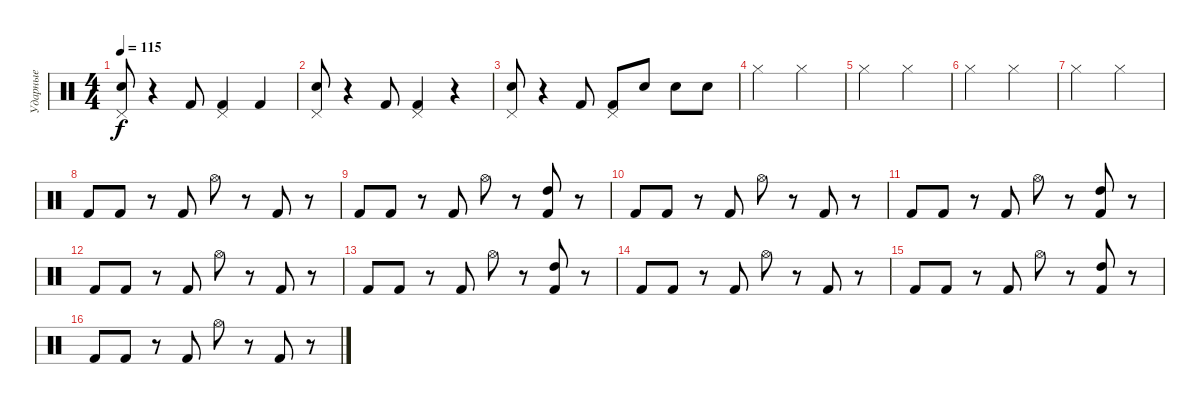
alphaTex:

\track ("Ударные" "Ударные") {instrument percussion}
\staff {score}
\articulation defaults
\ts (4 4)
\tempo 115
\clef neutral
\ks c
("Snare (hit) 2" "Pedal Hi-Hat (hit)").8{dy f} r.4 "Kick (hit) 2".8 ("Kick (hit) 2" "Pedal Hi-Hat (hit)").4 "Kick (hit) 2".4 |
("Snare (hit) 2" "Pedal Hi-Hat (hit)").8 r.4 "Kick (hit) 2".8 ("Kick (hit) 2" "Pedal Hi-Hat (hit)").4 r.4 |
("Snare (hit) 2" "Pedal Hi-Hat (hit)").8 r.4 "Kick (hit) 2".8 ("Kick (hit) 2" "Pedal Hi-Hat (hit)").8 "Snare (hit) 2".8 "Snare (hit) 2".8 "Snare (hit) 2".8 |
"Hi-Hat (closed)".2 "Hi-Hat (closed)".2 |
"Hi-Hat (closed)".2 "Hi-Hat (closed)".2 |
"Hi-Hat (closed)".2 "Hi-Hat (closed)".2 |
"Hi-Hat (closed)".2 "Hi-Hat (closed)".2 |
"Kick (hit) 2".8 "Kick (hit) 2".8 r.8 "Kick (hit) 2".8 "Hi-Hat (open)".8 r.8 "Kick (hit) 2".8 r.8 |
"Kick (hit) 2".8 "Kick (hit) 2".8 r.8 "Kick (hit) 2".8 "Hi-Hat (open)".8 r.8 ("Kick (hit) 2" "High Tom (hit)").8 r.8 |
"Kick (hit) 2".8 "Kick (hit) 2".8 r.8 "Kick (hit) 2".8 "Hi-Hat (open)".8 r.8 "Kick (hit) 2".8 r.8 |
"Kick (hit) 2".8 "Kick (hit) 2".8 r.8 "Kick (hit) 2".8 "Hi-Hat (open)".8 r.8 ("Kick (hit) 2" "High Tom (hit)").8 r.8 |
"Kick (hit) 2".8 "Kick (hit) 2".8 r.8 "Kick (hit) 2".8 "Hi-Hat (open)".8 r.8 "Kick (hit) 2".8 r.8 |
"Kick (hit) 2".8 "Kick (hit) 2".8 r.8 "Kick (hit) 2".8 "Hi-Hat (open)".8 r.8 ("Kick (hit) 2" "High Tom (hit)").8 r.8 |
"Kick (hit) 2".8 "Kick (hit) 2".8 r.8 "Kick (hit) 2".8 "Hi-Hat (open)".8 r.8 "Kick (hit) 2".8 r.8 |
"Kick (hit) 2".8 "Kick (hit) 2".8 r.8 "Kick (hit) 2".8 "Hi-Hat (open)".8 r.8 ("Kick (hit) 2" "High Tom (hit)").8 r.8 |
"Kick (hit) 2".8 "Kick (hit) 2".8 r.8 "Kick (hit) 2".8 "Hi-Hat (open)".8 r.8 "Kick (hit) 2".8 r.8
